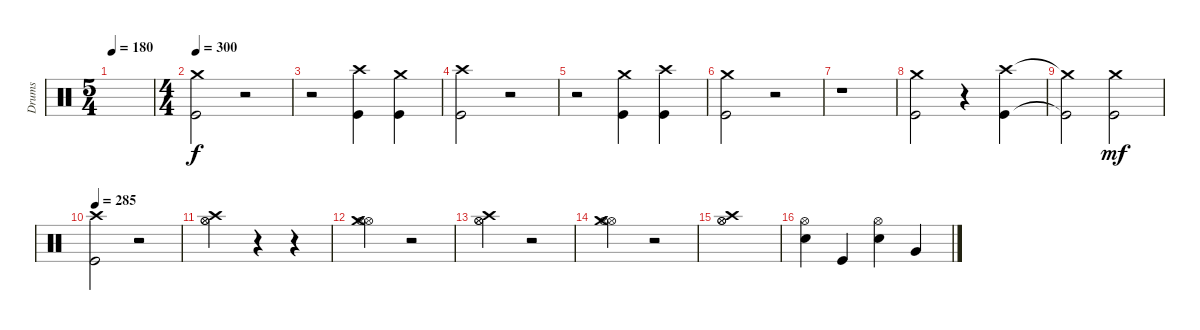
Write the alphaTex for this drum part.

\track ("Drums" "Drums") {instrument percussion}
\staff {score}
\articulation defaults
\ts (5 4)
\tempo 180
\clef neutral
\ks c
|
\ts (4 4)
\tempo 300
("Crash medium (hit)" "Kick (hit)").2 r.2 |
r.2 ("Crash high (hit)" "Kick (hit)").4 ("Crash medium (hit)" "Kick (hit)").4 |
("Crash high (hit)" "Kick (hit)").2 r.2 |
r.2 ("Crash medium (hit)" "Kick (hit)").4 ("Crash high (hit)" "Kick (hit)").4 |
("Crash medium (hit)" "Kick (hit)").2 r.2 |
r.1 |
("Crash medium (hit)" "Kick (hit)").2 r.4 ("Crash high (hit)" "Kick (hit)").4 |
("Crash medium (hit)"{t} "Kick (hit)"{t}).2{dy f} ("Crash medium (hit)" "Kick (hit)").2{dy mf} |
\tempo 285
("Crash high (hit)" "Kick (hit)").2 r.2 |
("Hi-Hat (open)" "Crash high (hit)" "Hi-Hat (open)").2{balance 16} r.4 r.4 |
("Hi-Hat (open)" "Crash medium (hit)" "Hi-Hat (open)").2{balance 0} r.2 |
("Hi-Hat (open)" "Crash high (hit)" "Hi-Hat (open)").2{balance 16} r.2 |
("Hi-Hat (open)" "Crash medium (hit)" "Hi-Hat (open)").2{balance 0} r.2 |
("Hi-Hat (open)" "Crash high (hit)" "Hi-Hat (open)").1{balance 16} |
("Hi-Hat (open)" "Snare (hit) 2").4{balance 8} "Kick (hit)".4 ("Hi-Hat (open)" "Snare (hit) 2").4 "Very Low Tom (hit)".4
